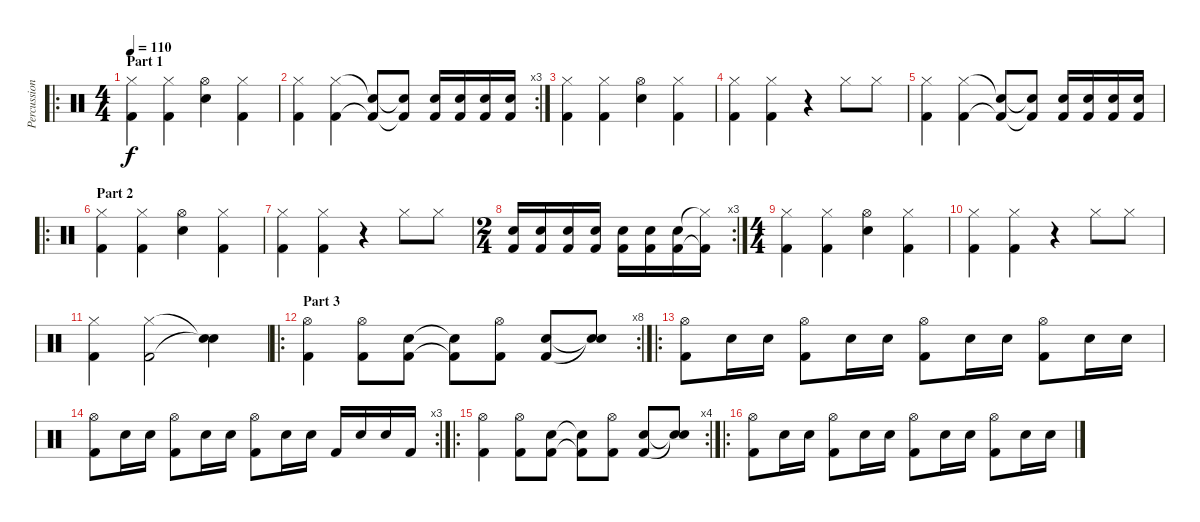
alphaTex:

\track ("Percussion" "Percussion") {instrument percussion}
\staff {score}
\articulation defaults
\ro
\ts (4 4)
\section ("" "Part 1")
\tempo 110
\clef neutral
\ks c
("Hi-Hat (closed)" "Kick (hit) 2").4{dy f} ("Hi-Hat (closed)" "Kick (hit) 2").4 ("Snare (hit) 2" "Hi-Hat (open)").4 ("Hi-Hat (closed)" "Kick (hit) 2").4 |
\rc 3
("Hi-Hat (closed)" "Kick (hit) 2").4 ("Hi-Hat (closed)" "Kick (hit) 2").4 ("Snare (hit) 2"{t} "Kick (hit) 2"{t}).8 ("Snare (hit) 2"{t} "Kick (hit) 2"{t}).8 ("Snare (hit) 2" "Kick (hit) 2").16 ("Snare (hit) 2" "Kick (hit) 2").16 ("Snare (hit) 2" "Kick (hit) 2").16 ("Snare (hit) 2" "Kick (hit) 2").16 |
("Hi-Hat (closed)" "Kick (hit) 2").4 ("Hi-Hat (closed)" "Kick (hit) 2").4 ("Snare (hit) 2" "Hi-Hat (open)").4 ("Hi-Hat (closed)" "Kick (hit) 2").4 |
("Hi-Hat (closed)" "Kick (hit) 2").4 ("Hi-Hat (closed)" "Kick (hit) 2").4 r.4 "Hi-Hat (closed)".8 "Hi-Hat (closed)".8 |
("Hi-Hat (closed)" "Kick (hit) 2").4 ("Hi-Hat (closed)" "Kick (hit) 2").4 ("Snare (hit) 2"{t} "Kick (hit) 2"{t}).8 ("Snare (hit) 2"{t} "Kick (hit) 2"{t}).8 ("Snare (hit) 2" "Kick (hit) 2").16 ("Snare (hit) 2" "Kick (hit) 2").16 ("Snare (hit) 2" "Kick (hit) 2").16 ("Snare (hit) 2" "Kick (hit) 2").16 |
\ro
\section ("" "Part 2")
("Hi-Hat (closed)" "Kick (hit) 2").4 ("Hi-Hat (closed)" "Kick (hit) 2").4 ("Snare (hit) 2" "Hi-Hat (open)").4 ("Hi-Hat (closed)" "Kick (hit) 2").4 |
("Hi-Hat (closed)" "Kick (hit) 2").4 ("Hi-Hat (closed)" "Kick (hit) 2").4 r.4 "Hi-Hat (closed)".8 "Hi-Hat (closed)".8 |
\rc 3
\ts (2 4)
("Snare (hit) 2" "Kick (hit) 2").16 ("Snare (hit) 2" "Kick (hit) 2").16 ("Snare (hit) 2" "Kick (hit) 2").16 ("Snare (hit) 2" "Kick (hit) 2").16 ("Snare (hit) 2" "Kick (hit) 2").16 ("Snare (hit) 2" "Kick (hit) 2").16 ("Snare (hit) 2" "Kick (hit) 2").16 ("Hi-Hat (closed)"{t} "Kick (hit) 2"{t}).16 |
\ts (4 4)
("Hi-Hat (closed)" "Kick (hit) 2").4 ("Hi-Hat (closed)" "Kick (hit) 2").4 ("Snare (hit) 2" "Hi-Hat (open)").4 ("Hi-Hat (closed)" "Kick (hit) 2").4 |
("Hi-Hat (closed)" "Kick (hit) 2").4 ("Hi-Hat (closed)" "Kick (hit) 2").4 r.4 "Hi-Hat (closed)".8 "Hi-Hat (closed)".8 |
("Hi-Hat (closed)" "Kick (hit) 2").4 ("Hi-Hat (closed)" "Kick (hit) 2").2 ("Snare (hit)"{t} "Snare (hit)"{t}).4 |
\ro
\rc 8
\section ("" "Part 3")
("Hi-Hat (open)" "Kick (hit) 2").4 ("Hi-Hat (open)" "Kick (hit) 2").8 ("Snare (hit) 2" "Kick (hit) 2").8 ("Snare (hit) 2"{t} "Kick (hit) 2"{t}).8 ("Hi-Hat (open)" "Kick (hit) 2").8 ("Snare (hit) 2" "Kick (hit) 2").8 ("Snare (hit)"{t} "Snare (hit)"{t}).8 |
\ro
("Hi-Hat (open)" "Kick (hit) 2").8 "Snare (hit) 2".16 "Snare (hit) 2".16 ("Hi-Hat (open)" "Kick (hit) 2").8 "Snare (hit) 2".16 "Snare (hit) 2".16 ("Hi-Hat (open)" "Kick (hit) 2").8 "Snare (hit) 2".16 "Snare (hit) 2".16 ("Hi-Hat (open)" "Kick (hit) 2").8 "Snare (hit) 2".16 "Snare (hit) 2".16 |
\rc 3
("Hi-Hat (open)" "Kick (hit) 2").8 "Snare (hit) 2".16 "Snare (hit) 2".16 ("Hi-Hat (open)" "Kick (hit) 2").8 "Snare (hit) 2".16 "Snare (hit) 2".16 ("Hi-Hat (open)" "Kick (hit) 2").8 "Snare (hit) 2".16 "Snare (hit) 2".16 "Kick (hit) 2".16 "Snare (hit) 2".16 "Snare (hit) 2".16 "Kick (hit) 2".16 |
\ro
\rc 4
("Hi-Hat (open)" "Kick (hit) 2").4 ("Hi-Hat (open)" "Kick (hit) 2").8 ("Snare (hit) 2" "Kick (hit) 2").8 ("Snare (hit) 2"{t} "Kick (hit) 2"{t}).8 ("Hi-Hat (open)" "Kick (hit) 2").8 ("Snare (hit) 2" "Kick (hit) 2").8 ("Snare (hit)"{t} "Snare (hit)"{t}).8 |
\ro
("Hi-Hat (open)" "Kick (hit) 2").8 "Snare (hit) 2".16 "Snare (hit) 2".16 ("Hi-Hat (open)" "Kick (hit) 2").8 "Snare (hit) 2".16 "Snare (hit) 2".16 ("Hi-Hat (open)" "Kick (hit) 2").8 "Snare (hit) 2".16 "Snare (hit) 2".16 ("Hi-Hat (open)" "Kick (hit) 2").8 "Snare (hit) 2".16 "Snare (hit) 2".16
